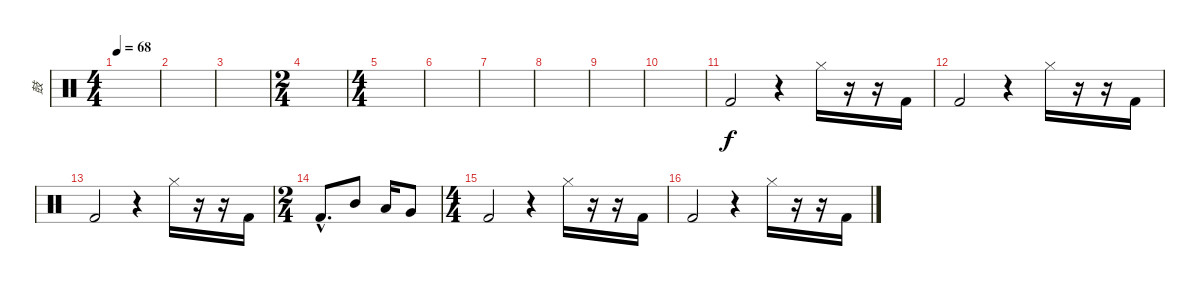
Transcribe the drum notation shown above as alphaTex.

\track ("鼓" "鼓") {instrument percussion}
\staff {score}
\articulation defaults
\ts (4 4)
\tempo 68
\clef neutral
\ks c
|
|
|
\ts (2 4)
|
\ts (4 4)
|
|
|
|
|
|
"Kick (hit) 2".2 r.4 "Hi-Hat (closed)".16 r.16 r.16 "Kick (hit) 2".16 |
"Kick (hit) 2".2 r.4 "Hi-Hat (closed)".16 r.16 r.16 "Kick (hit) 2".16 |
"Kick (hit) 2".2 r.4 "Hi-Hat (closed)".16 r.16 r.16 "Kick (hit) 2".16 |
\ts (2 4)
"Kick (hit) 2"{hac}.8{d} "Mid Tom (hit)".8 "Low Tom (hit)".16 "Very Low Tom (hit)".8 |
\ts (4 4)
"Kick (hit) 2".2 r.4 "Hi-Hat (closed)".16 r.16 r.16 "Kick (hit) 2".16 |
"Kick (hit) 2".2 r.4 "Hi-Hat (closed)".16 r.16 r.16 "Kick (hit) 2".16
